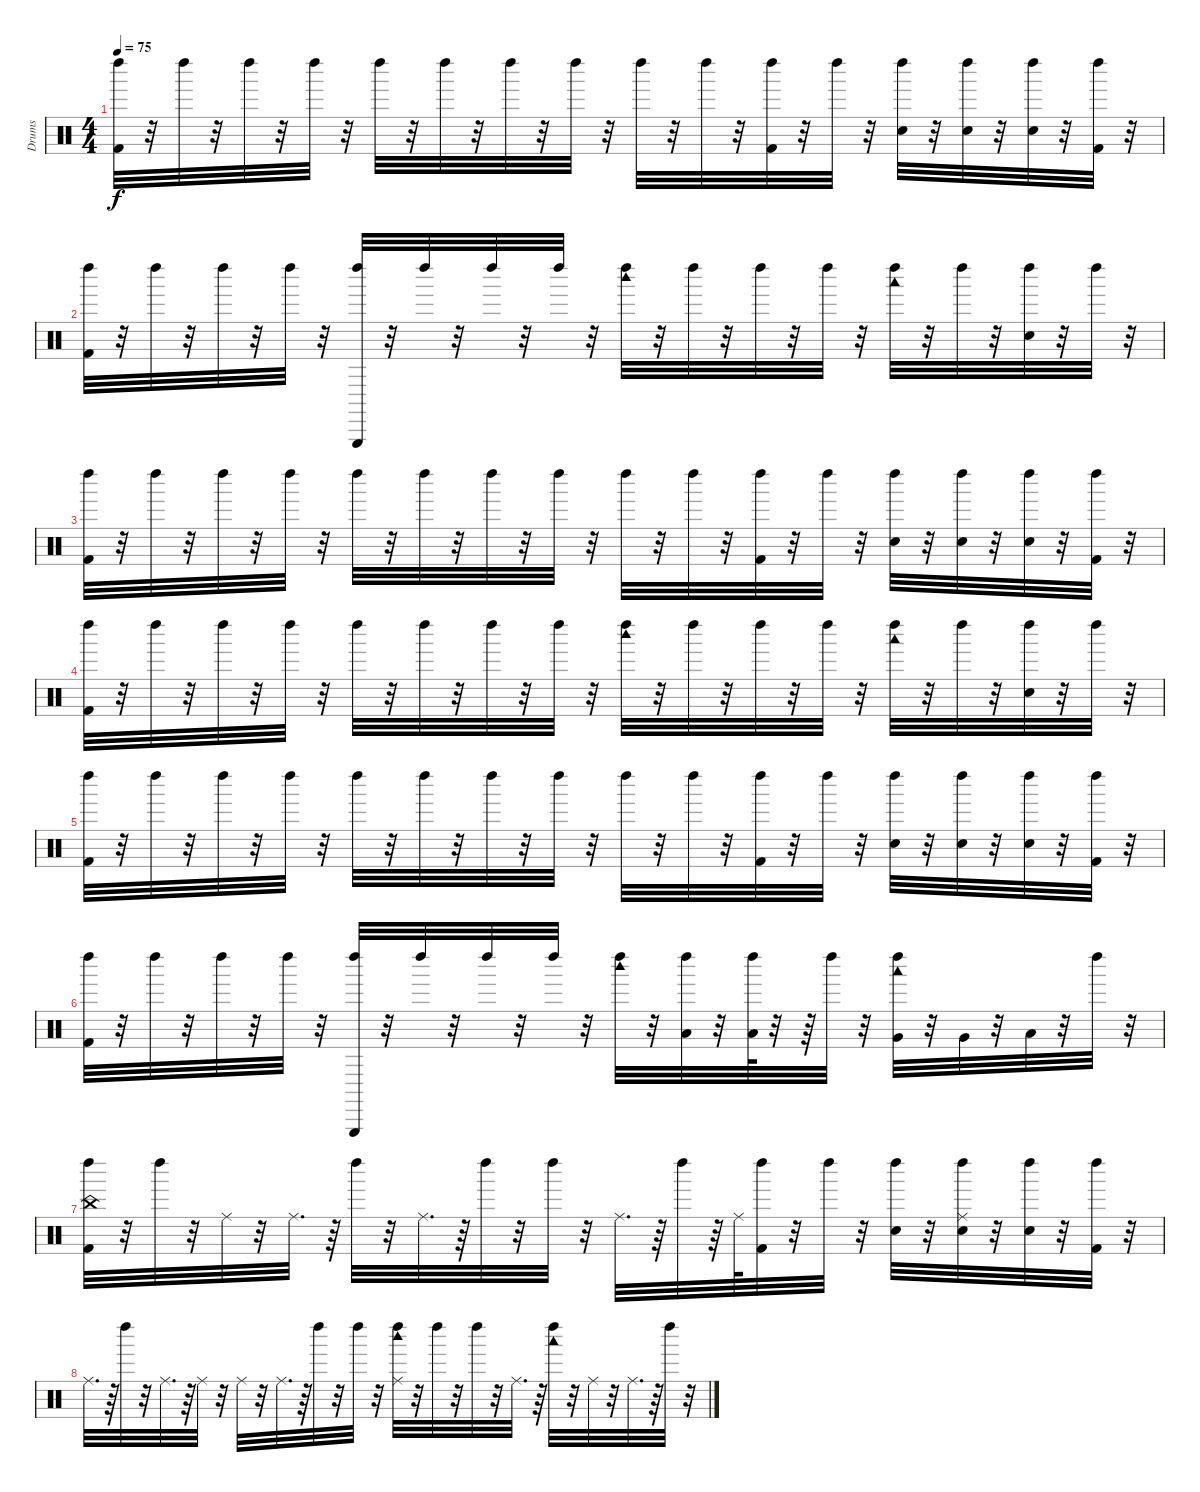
\track ("Drums" "Drums") {instrument percussion}
\staff {score}
\articulation defaults
\ts (4 4)
\tempo 75
\clef neutral
\ks c
("Kick (hit) 2" "Left Maraca (hit)").32{dy f} r.32 "Left Maraca (hit)".32 r.32 "Left Maraca (hit)".32 r.32 "Left Maraca (hit)".32 r.32 "Left Maraca (hit)".32 r.32 "Left Maraca (hit)".32 r.32 "Left Maraca (hit)".32 r.32 "Left Maraca (hit)".32 r.32 "Left Maraca (hit)".32 r.32 "Left Maraca (hit)".32 r.32 ("Kick (hit) 2" "Left Maraca (hit)").32 r.32 "Left Maraca (hit)".32 r.32 ("Snare (hit) 2" "Left Maraca (hit)").32 r.32 ("Snare (hit) 2" "Left Maraca (hit)").32 r.32 ("Snare (hit) 2" "Left Maraca (hit)").32 r.32 ("Kick (hit) 2" "Left Maraca (hit)").32 r.32 |
("Kick (hit) 2" "Left Maraca (hit)").32 r.32 "Left Maraca (hit)".32 r.32 "Left Maraca (hit)".32 r.32 "Left Maraca (hit)".32 r.32 ("Triangle (hit)" "Left Maraca (hit)").32 r.32 "Left Maraca (hit)".32 r.32 "Left Maraca (hit)".32 r.32 "Left Maraca (hit)".32 r.32 ("Woodblock high (hit)" "Left Maraca (hit)").32 r.32 "Left Maraca (hit)".32 r.32 "Left Maraca (hit)".32 r.32 "Left Maraca (hit)".32 r.32 ("Woodblock low (hit)" "Left Maraca (hit)").32 r.32 "Left Maraca (hit)".32 r.32 ("Hand Clap (hit)" "Left Maraca (hit)").32 r.32 "Left Maraca (hit)".32 r.32 |
("Kick (hit) 2" "Left Maraca (hit)").32 r.32 "Left Maraca (hit)".32 r.32 "Left Maraca (hit)".32 r.32 "Left Maraca (hit)".32 r.32 "Left Maraca (hit)".32 r.32 "Left Maraca (hit)".32 r.32 "Left Maraca (hit)".32 r.32 "Left Maraca (hit)".32 r.32 "Left Maraca (hit)".32 r.32 "Left Maraca (hit)".32 r.32 ("Kick (hit) 2" "Left Maraca (hit)").32 r.32 "Left Maraca (hit)".32 r.32 ("Snare (hit) 2" "Left Maraca (hit)").32 r.32 ("Snare (hit) 2" "Left Maraca (hit)").32 r.32 ("Snare (hit) 2" "Left Maraca (hit)").32 r.32 ("Kick (hit) 2" "Left Maraca (hit)").32 r.32 |
("Kick (hit) 2" "Left Maraca (hit)").32 r.32 "Left Maraca (hit)".32 r.32 "Left Maraca (hit)".32 r.32 "Left Maraca (hit)".32 r.32 "Left Maraca (hit)".32 r.32 "Left Maraca (hit)".32 r.32 "Left Maraca (hit)".32 r.32 "Left Maraca (hit)".32 r.32 ("Woodblock high (hit)" "Left Maraca (hit)").32 r.32 "Left Maraca (hit)".32 r.32 "Left Maraca (hit)".32 r.32 "Left Maraca (hit)".32 r.32 ("Woodblock low (hit)" "Left Maraca (hit)").32 r.32 "Left Maraca (hit)".32 r.32 ("Hand Clap (hit)" "Left Maraca (hit)").32 r.32 "Left Maraca (hit)".32 r.32 |
("Kick (hit) 2" "Left Maraca (hit)").32 r.32 "Left Maraca (hit)".32 r.32 "Left Maraca (hit)".32 r.32 "Left Maraca (hit)".32 r.32 "Left Maraca (hit)".32 r.32 "Left Maraca (hit)".32 r.32 "Left Maraca (hit)".32 r.32 "Left Maraca (hit)".32 r.32 "Left Maraca (hit)".32 r.32 "Left Maraca (hit)".32 r.32 ("Kick (hit) 2" "Left Maraca (hit)").32 r.32 "Left Maraca (hit)".32 r.32 ("Snare (hit) 2" "Left Maraca (hit)").32 r.32 ("Snare (hit) 2" "Left Maraca (hit)").32 r.32 ("Snare (hit) 2" "Left Maraca (hit)").32 r.32 ("Kick (hit) 2" "Left Maraca (hit)").32 r.32 |
("Kick (hit) 2" "Left Maraca (hit)").32 r.32 "Left Maraca (hit)".32 r.32 "Left Maraca (hit)".32 r.32 "Left Maraca (hit)".32 r.32 ("Triangle (hit)" "Left Maraca (hit)").32 r.32 "Left Maraca (hit)".32 r.32 "Left Maraca (hit)".32 r.32 "Left Maraca (hit)".32 r.32 ("Woodblock high (hit)" "Left Maraca (hit)").32 r.32 ("Left Maraca (hit)" "Low Tom (hit)").32 r.32 ("Left Maraca (hit)" "Low Tom (hit)").64 r.32 r.64 "Left Maraca (hit)".32 r.32 ("Very Low Tom (hit)" "Woodblock low (hit)" "Left Maraca (hit)").32 r.32 "Very Low Tom (hit)".32 r.32 "Low Floor Tom (hit)".32 r.32 "Left Maraca (hit)".32 r.32 |
("China (hit)" "Kick (hit) 2" "Left Maraca (hit)").32 r.32 "Left Maraca (hit)".32 r.32 "Ride (middle)".32 r.32 "Ride (middle)".32{d} r.64 "Left Maraca (hit)".32 r.32 "Ride (middle)".32{d} r.64 "Left Maraca (hit)".32 r.32 "Left Maraca (hit)".32 r.32 "Ride (middle)".32{d} r.64 "Left Maraca (hit)".32 r.64 "Ride (middle)".64 ("Kick (hit) 2" "Left Maraca (hit)").32 r.32 "Left Maraca (hit)".32 r.32 ("Snare (hit) 2" "Left Maraca (hit)").32 r.32 ("Ride (middle)" "Snare (hit) 2" "Left Maraca (hit)").32 r.32 ("Snare (hit) 2" "Left Maraca (hit)").32 r.32 ("Kick (hit) 2" "Left Maraca (hit)").32 r.32 |
"Ride (middle)".32{d} r.64 "Left Maraca (hit)".32 r.32 "Ride (middle)".32{d} r.64 "Ride (middle)".32 r.32 "Ride (middle)".32 r.32 "Ride (middle)".32{d} r.64 "Left Maraca (hit)".32 r.32 "Left Maraca (hit)".32 r.32 ("Ride (middle)" "Woodblock high (hit)" "Left Maraca (hit)").32 r.32 "Left Maraca (hit)".32 r.32 "Left Maraca (hit)".32 r.32 "Ride (middle)".32{d} r.64 ("Woodblock low (hit)" "Left Maraca (hit)").32 r.32 "Ride (middle)".32 r.32 "Ride (middle)".32{d} r.64 "Left Maraca (hit)".32 r.32
